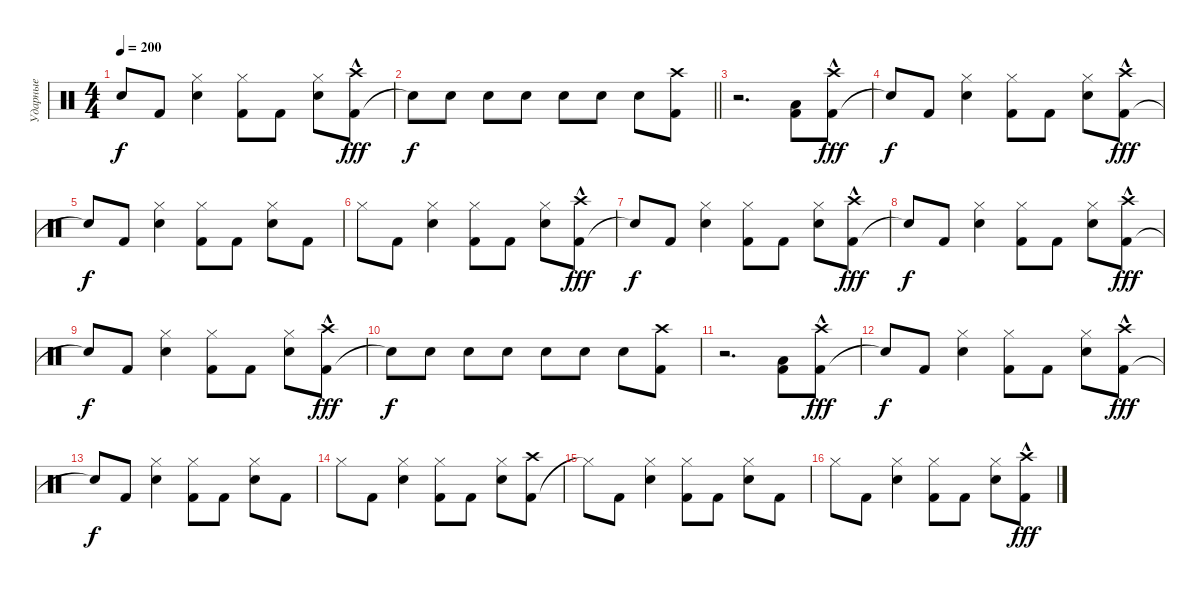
\track ("Ударные" "Ударные") {instrument percussion}
\staff {score}
\articulation defaults
\ts (4 4)
\tempo 200
\clef neutral
\ks c "Snare (hit)"{t}.8{dy f} "Kick (hit) 2".8
("Snare (hit) 2" "Hi-Hat (closed)").4 ("Kick (hit) 2" "Hi-Hat (closed)").8 "Kick (hit) 2".8 ("Snare (hit) 2" "Hi-Hat (closed)").8 ("Kick (hit) 2" "Crash high (hit)"{hac}).8{dy fff} |
\barLineRight lightlight "Snare (hit)"{t}.8{dy f} "Snare (hit) 2".8 "Snare (hit) 2".8 "Snare (hit) 2".8 "Snare (hit) 2".8 "Snare (hit) 2".8 "Snare (hit) 2".8
("Kick (hit) 2" "Crash high (hit)").8 |
r.2{d} ("Kick (hit) 2" "Low Floor Tom (hit)").8 ("Kick (hit) 2" "Crash high (hit)"{hac}).8{dy fff} |
"Snare (hit)"{t}.8{dy f} "Kick (hit) 2".8 ("Snare (hit) 2" "Hi-Hat (closed)").4 ("Kick (hit) 2" "Hi-Hat (closed)").8 "Kick (hit) 2".8 ("Snare (hit) 2" "Hi-Hat (closed)").8 ("Kick (hit) 2" "Crash high (hit)"{hac}).8{dy fff} |
"Snare (hit)"{t}.8{dy f} "Kick (hit) 2".8 ("Snare (hit) 2" "Hi-Hat (closed)").4 ("Kick (hit) 2" "Hi-Hat (closed)").8 "Kick (hit) 2".8 ("Snare (hit) 2" "Hi-Hat (closed)").8 "Kick (hit) 2".8 |
"Hi-Hat (closed)".8 "Kick (hit) 2".8 ("Snare (hit) 2" "Hi-Hat (closed)").4 ("Kick (hit) 2" "Hi-Hat (closed)").8 "Kick (hit) 2".8 ("Snare (hit) 2" "Hi-Hat (closed)").8 ("Kick (hit) 2" "Crash high (hit)"{hac}).8{dy fff} |
"Snare (hit)"{t}.8{dy f} "Kick (hit) 2".8 ("Snare (hit) 2" "Hi-Hat (closed)").4 ("Kick (hit) 2" "Hi-Hat (closed)").8 "Kick (hit) 2".8 ("Snare (hit) 2" "Hi-Hat (closed)").8 ("Kick (hit) 2" "Crash high (hit)"{hac}).8{dy fff} |
"Snare (hit)"{t}.8{dy f} "Kick (hit) 2".8 ("Snare (hit) 2" "Hi-Hat (closed)").4 ("Kick (hit) 2" "Hi-Hat (closed)").8 "Kick (hit) 2".8 ("Snare (hit) 2" "Hi-Hat (closed)").8 ("Kick (hit) 2" "Crash high (hit)"{hac}).8{dy fff} |
"Snare (hit)"{t}.8{dy f} "Kick (hit) 2".8 ("Snare (hit) 2" "Hi-Hat (closed)").4 ("Kick (hit) 2" "Hi-Hat (closed)").8 "Kick (hit) 2".8 ("Snare (hit) 2" "Hi-Hat (closed)").8 ("Kick (hit) 2" "Crash high (hit)"{hac}).8{dy fff} |
"Snare (hit)"{t}.8{dy f} "Snare (hit) 2".8 "Snare (hit) 2".8 "Snare (hit) 2".8 "Snare (hit) 2".8 "Snare (hit) 2".8 "Snare (hit) 2".8 ("Kick (hit) 2" "Crash high (hit)").8 |
r.2{d} ("Kick (hit) 2" "Low Floor Tom (hit)").8 ("Kick (hit) 2" "Crash high (hit)"{hac}).8{dy fff} |
"Snare (hit)"{t}.8{dy f} "Kick (hit) 2".8 ("Snare (hit) 2" "Hi-Hat (closed)").4 ("Kick (hit) 2" "Hi-Hat (closed)").8 "Kick (hit) 2".8 ("Snare (hit) 2" "Hi-Hat (closed)").8 ("Kick (hit) 2" "Crash high (hit)"{hac}).8{dy fff} |
"Snare (hit)"{t}.8{dy f} "Kick (hit) 2".8 ("Snare (hit) 2" "Hi-Hat (closed)").4 ("Kick (hit) 2" "Hi-Hat (closed)").8 "Kick (hit) 2".8 ("Snare (hit) 2" "Hi-Hat (closed)").8 "Kick (hit) 2".8 |
"Hi-Hat (closed)".8 "Kick (hit) 2".8 ("Snare (hit) 2" "Hi-Hat (closed)").4 ("Kick (hit) 2" "Hi-Hat (closed)").8 "Kick (hit) 2".8 ("Snare (hit) 2" "Hi-Hat (closed)").8 ("Kick (hit) 2" "Crash high (hit)").8 |
"Hi-Hat (closed)"{t}.8 "Kick (hit) 2".8 ("Snare (hit) 2" "Hi-Hat (closed)").4 ("Kick (hit) 2" "Hi-Hat (closed)").8 "Kick (hit) 2".8 ("Snare (hit) 2" "Hi-Hat (closed)").8 "Kick (hit) 2".8 |
"Hi-Hat (closed)".8 "Kick (hit) 2".8 ("Snare (hit) 2" "Hi-Hat (closed)").4 ("Kick (hit) 2" "Hi-Hat (closed)").8 "Kick (hit) 2".8 ("Snare (hit) 2" "Hi-Hat (closed)").8 ("Kick (hit) 2" "Crash high (hit)"{hac}).8{dy fff}
